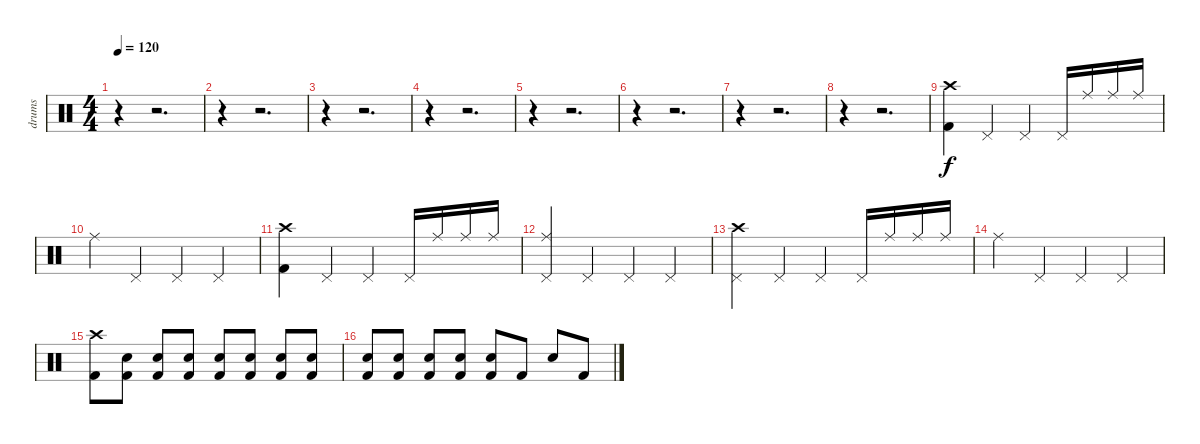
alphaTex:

\track ("drums" "drums") {instrument percussion}
\staff {score}
\articulation defaults
\ts (4 4)
\tempo 120
\clef neutral
\ks c
r.4{dy f} r.2{d} |
r.4 r.2{d} |
r.4 r.2{d} |
r.4 r.2{d} |
r.4 r.2{d} |
r.4 r.2{d} |
r.4 r.2{d} |
r.4 r.2{d} |
("Crash high (hit)" "Kick (hit) 2").4 "Pedal Hi-Hat (hit)".4 "Pedal Hi-Hat (hit)".4 "Pedal Hi-Hat (hit)".16 "Ride (middle)".16 "Ride (middle)".16 "Ride (middle)".16 |
"Ride (middle)".4 "Pedal Hi-Hat (hit)".4 "Pedal Hi-Hat (hit)".4 "Pedal Hi-Hat (hit)".4 |
("Crash high (hit)" "Kick (hit) 2").4 "Pedal Hi-Hat (hit)".4 "Pedal Hi-Hat (hit)".4 "Pedal Hi-Hat (hit)".16 "Ride (middle)".16 "Ride (middle)".16 "Ride (middle)".16 |
("Ride (middle)" "Pedal Hi-Hat (hit)").4 "Pedal Hi-Hat (hit)".4 "Pedal Hi-Hat (hit)".4 "Pedal Hi-Hat (hit)".4 |
("Crash high (hit)" "Pedal Hi-Hat (hit)").4 "Pedal Hi-Hat (hit)".4 "Pedal Hi-Hat (hit)".4 "Pedal Hi-Hat (hit)".16 "Ride (middle)".16 "Ride (middle)".16 "Ride (middle)".16 |
"Ride (middle)".4 "Pedal Hi-Hat (hit)".4 "Pedal Hi-Hat (hit)".4 "Pedal Hi-Hat (hit)".4 |
("Crash high (hit)" "Kick (hit) 2").8 ("Kick (hit) 2" "Snare (hit) 2").8 ("Kick (hit) 2" "Snare (hit) 2").8 ("Kick (hit) 2" "Snare (hit) 2").8 ("Kick (hit) 2" "Snare (hit) 2").8 ("Kick (hit) 2" "Snare (hit) 2").8 ("Kick (hit) 2" "Snare (hit) 2").8 ("Kick (hit) 2" "Snare (hit) 2").8 |
("Kick (hit) 2" "Snare (hit) 2").8 ("Kick (hit) 2" "Snare (hit) 2").8 ("Kick (hit) 2" "Snare (hit) 2").8 ("Kick (hit) 2" "Snare (hit) 2").8 ("Kick (hit) 2" "Snare (hit) 2").8 "Kick (hit) 2".8 "Snare (hit) 2".8 "Kick (hit) 2".8
